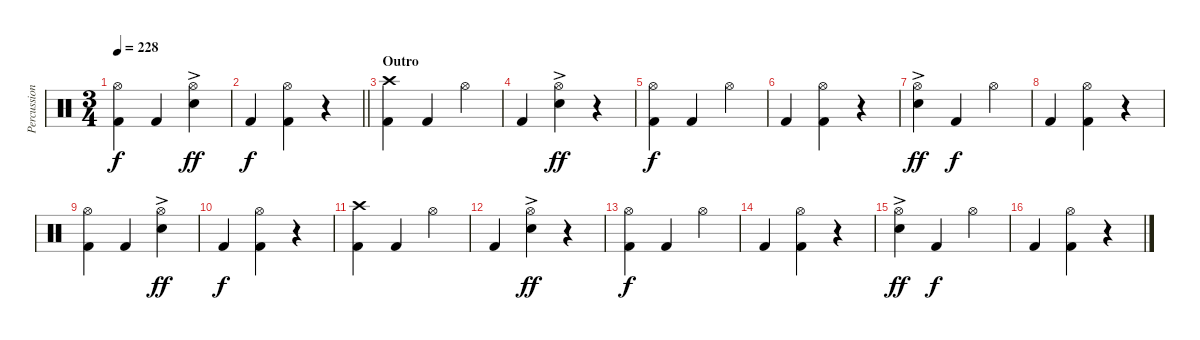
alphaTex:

\track ("Percussion" "Percussion") {instrument percussion}
\staff {score}
\articulation defaults
\ts (3 4)
\tempo 228
\clef neutral
\ks c
("Hi-Hat (open)" "Kick (hit) 2").4{dy f} "Kick (hit) 2".4 ("Hi-Hat (open)" "Electric Snare (hit)"{ac}).4{dy ff} |
\barLineRight lightlight "Kick (hit) 2".4{dy f}
("Hi-Hat (open)" "Kick (hit) 2").4 r.4 |
\section ("" "Outro")
("Crash high (hit)" "Kick (hit) 2").4 "Kick (hit) 2".4 "Hi-Hat (open)".4 |
"Kick (hit) 2".4 ("Hi-Hat (open)" "Electric Snare (hit)"{ac}).4{dy ff} r.4 |
("Hi-Hat (open)" "Kick (hit) 2").4{dy f} "Kick (hit) 2".4 "Hi-Hat (open)".4 |
"Kick (hit) 2".4 ("Hi-Hat (open)" "Kick (hit) 2").4 r.4 |
("Hi-Hat (open)" "Electric Snare (hit)"{ac}).4{dy ff} "Kick (hit) 2".4{dy f} "Hi-Hat (open)".4 |
"Kick (hit) 2".4 ("Hi-Hat (open)" "Kick (hit) 2").4 r.4 |
("Hi-Hat (open)" "Kick (hit) 2").4 "Kick (hit) 2".4 ("Hi-Hat (open)" "Electric Snare (hit)"{ac}).4{dy ff} |
"Kick (hit) 2".4{dy f} ("Hi-Hat (open)" "Kick (hit) 2").4 r.4 |
("Crash high (hit)" "Kick (hit) 2").4 "Kick (hit) 2".4 "Hi-Hat (open)".4 |
"Kick (hit) 2".4 ("Hi-Hat (open)" "Electric Snare (hit)"{ac}).4{dy ff} r.4 |
("Hi-Hat (open)" "Kick (hit) 2").4{dy f} "Kick (hit) 2".4 "Hi-Hat (open)".4 |
"Kick (hit) 2".4 ("Hi-Hat (open)" "Kick (hit) 2").4 r.4 |
("Hi-Hat (open)" "Electric Snare (hit)"{ac}).4{dy ff} "Kick (hit) 2".4{dy f} "Hi-Hat (open)".4 |
"Kick (hit) 2".4 ("Hi-Hat (open)" "Kick (hit) 2").4 r.4
